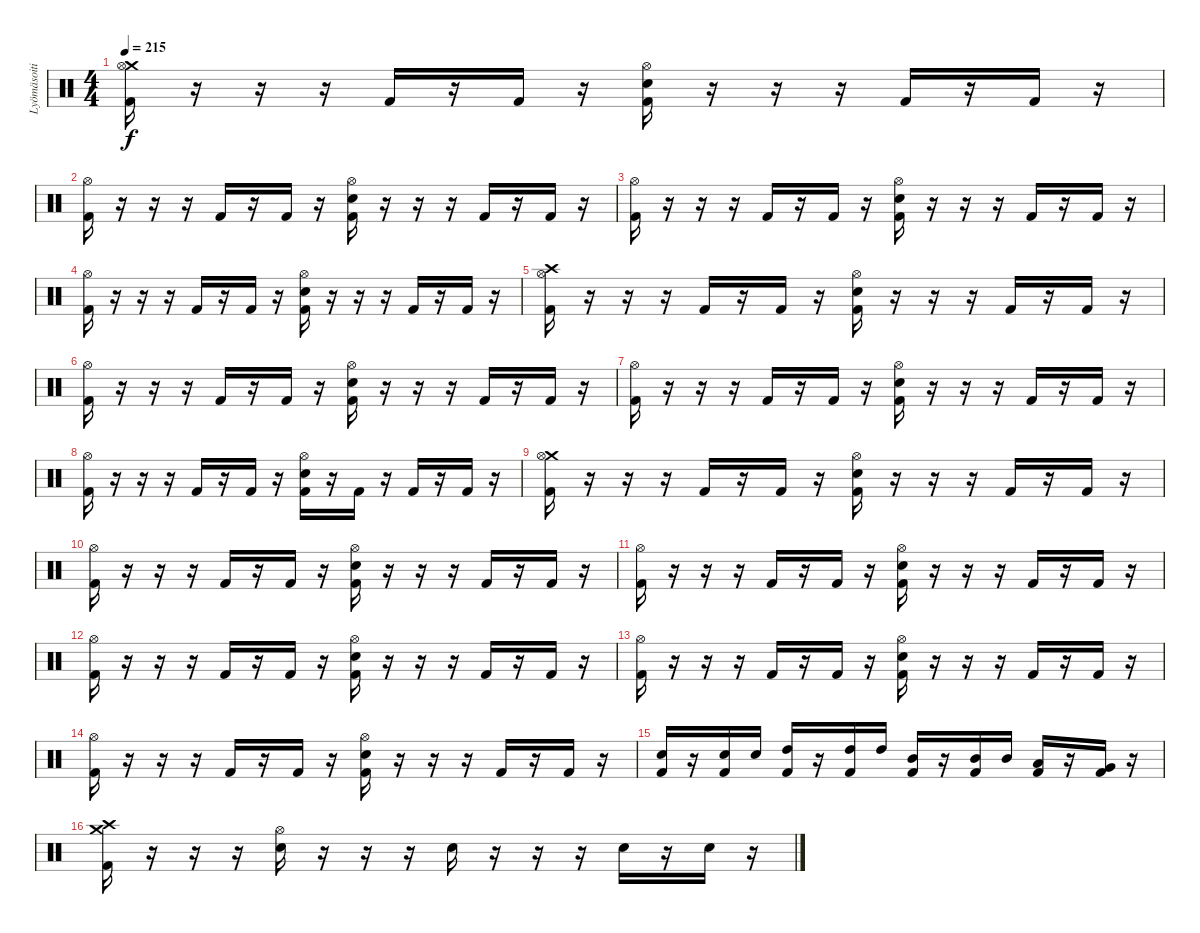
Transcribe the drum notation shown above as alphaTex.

\track ("Lyömäsoitin" "Lyömäsoiti") {instrument percussion}
\staff {score}
\articulation defaults
\ts (4 4)
\tempo 215
\clef neutral
\ks c
("Crash medium (hit)" "Hi-Hat (open)" "Kick (hit) 2").16{dy f} r.16 r.16 r.16 "Kick (hit) 2".16 r.16 "Kick (hit) 2".16 r.16 ("Electric Snare (hit)" "Hi-Hat (open)" "Kick (hit) 2").16 r.16 r.16 r.16 "Kick (hit) 2".16 r.16 "Kick (hit) 2".16 r.16 |
("Hi-Hat (open)" "Kick (hit) 2").16 r.16 r.16 r.16 "Kick (hit) 2".16 r.16 "Kick (hit) 2".16 r.16 ("Electric Snare (hit)" "Hi-Hat (open)" "Kick (hit) 2").16 r.16 r.16 r.16 "Kick (hit) 2".16 r.16 "Kick (hit) 2".16 r.16 |
("Hi-Hat (open)" "Kick (hit) 2").16 r.16 r.16 r.16 "Kick (hit) 2".16 r.16 "Kick (hit) 2".16 r.16 ("Electric Snare (hit)" "Hi-Hat (open)" "Kick (hit) 2").16 r.16 r.16 r.16 "Kick (hit) 2".16 r.16 "Kick (hit) 2".16 r.16 |
("Hi-Hat (open)" "Kick (hit) 2").16 r.16 r.16 r.16 "Kick (hit) 2".16 r.16 "Kick (hit) 2".16 r.16 ("Electric Snare (hit)" "Hi-Hat (open)" "Kick (hit) 2").16 r.16 r.16 r.16 "Kick (hit) 2".16 r.16 "Kick (hit) 2".16 r.16 |
("Crash high (hit)" "Hi-Hat (open)" "Kick (hit) 2").16 r.16 r.16 r.16 "Kick (hit) 2".16 r.16 "Kick (hit) 2".16 r.16 ("Electric Snare (hit)" "Hi-Hat (open)" "Kick (hit) 2").16 r.16 r.16 r.16 "Kick (hit) 2".16 r.16 "Kick (hit) 2".16 r.16 |
("Hi-Hat (open)" "Kick (hit) 2").16 r.16 r.16 r.16 "Kick (hit) 2".16 r.16 "Kick (hit) 2".16 r.16 ("Electric Snare (hit)" "Hi-Hat (open)" "Kick (hit) 2").16 r.16 r.16 r.16 "Kick (hit) 2".16 r.16 "Kick (hit) 2".16 r.16 |
("Hi-Hat (open)" "Kick (hit) 2").16 r.16 r.16 r.16 "Kick (hit) 2".16 r.16 "Kick (hit) 2".16 r.16 ("Electric Snare (hit)" "Hi-Hat (open)" "Kick (hit) 2").16 r.16 r.16 r.16 "Kick (hit) 2".16 r.16 "Kick (hit) 2".16 r.16 |
("Hi-Hat (open)" "Kick (hit) 2").16 r.16 r.16 r.16 "Kick (hit) 2".16 r.16 "Kick (hit) 2".16 r.16 ("Electric Snare (hit)" "Hi-Hat (open)" "Kick (hit) 2").16 r.16 "Kick (hit) 2".16 r.16 "Kick (hit) 2".16 r.16 "Kick (hit) 2".16 r.16 |
("Crash medium (hit)" "Hi-Hat (open)" "Kick (hit) 2").16 r.16 r.16 r.16 "Kick (hit) 2".16 r.16 "Kick (hit) 2".16 r.16 ("Electric Snare (hit)" "Hi-Hat (open)" "Kick (hit) 2").16 r.16 r.16 r.16 "Kick (hit) 2".16 r.16 "Kick (hit) 2".16 r.16 |
("Hi-Hat (open)" "Kick (hit) 2").16 r.16 r.16 r.16 "Kick (hit) 2".16 r.16 "Kick (hit) 2".16 r.16 ("Electric Snare (hit)" "Hi-Hat (open)" "Kick (hit) 2").16 r.16 r.16 r.16 "Kick (hit) 2".16 r.16 "Kick (hit) 2".16 r.16 |
("Hi-Hat (open)" "Kick (hit) 2").16 r.16 r.16 r.16 "Kick (hit) 2".16 r.16 "Kick (hit) 2".16 r.16 ("Electric Snare (hit)" "Hi-Hat (open)" "Kick (hit) 2").16 r.16 r.16 r.16 "Kick (hit) 2".16 r.16 "Kick (hit) 2".16 r.16 |
("Hi-Hat (open)" "Kick (hit) 2").16 r.16 r.16 r.16 "Kick (hit) 2".16 r.16 "Kick (hit) 2".16 r.16 ("Electric Snare (hit)" "Hi-Hat (open)" "Kick (hit) 2").16 r.16 r.16 r.16 "Kick (hit) 2".16 r.16 "Kick (hit) 2".16 r.16 |
("Hi-Hat (open)" "Kick (hit) 2").16 r.16 r.16 r.16 "Kick (hit) 2".16 r.16 "Kick (hit) 2".16 r.16 ("Electric Snare (hit)" "Hi-Hat (open)" "Kick (hit) 2").16 r.16 r.16 r.16 "Kick (hit) 2".16 r.16 "Kick (hit) 2".16 r.16 |
("Hi-Hat (open)" "Kick (hit) 2").16 r.16 r.16 r.16 "Kick (hit) 2".16 r.16 "Kick (hit) 2".16 r.16 ("Electric Snare (hit)" "Hi-Hat (open)" "Kick (hit) 2").16 r.16 r.16 r.16 "Kick (hit) 2".16 r.16 "Kick (hit) 2".16 r.16 |
("Electric Snare (hit)" "Kick (hit) 2").16 r.16 ("Electric Snare (hit)" "Kick (hit) 2").16 "Electric Snare (hit)".16 ("High Tom (hit)" "Kick (hit) 2").16 r.16 ("High Tom (hit)" "Kick (hit) 2").16 "High Tom (hit)".16 ("Mid Tom (hit)" "Kick (hit) 2").16 r.16 ("Mid Tom (hit)" "Kick (hit) 2").16 "Mid Tom (hit)".16 ("Low Tom (hit)" "Kick (hit) 2").16 r.16 ("Very Low Tom (hit)" "Kick (hit) 2").16 r.16 |
("Crash medium (hit)" "Crash high (hit)" "Kick (hit) 2").16 r.16 r.16 r.16 ("Electric Snare (hit)" "Hi-Hat (open)").16 r.16 r.16 r.16 "Electric Snare (hit)".16 r.16 r.16 r.16 "Electric Snare (hit)".16 r.16 "Electric Snare (hit)".16 r.16
